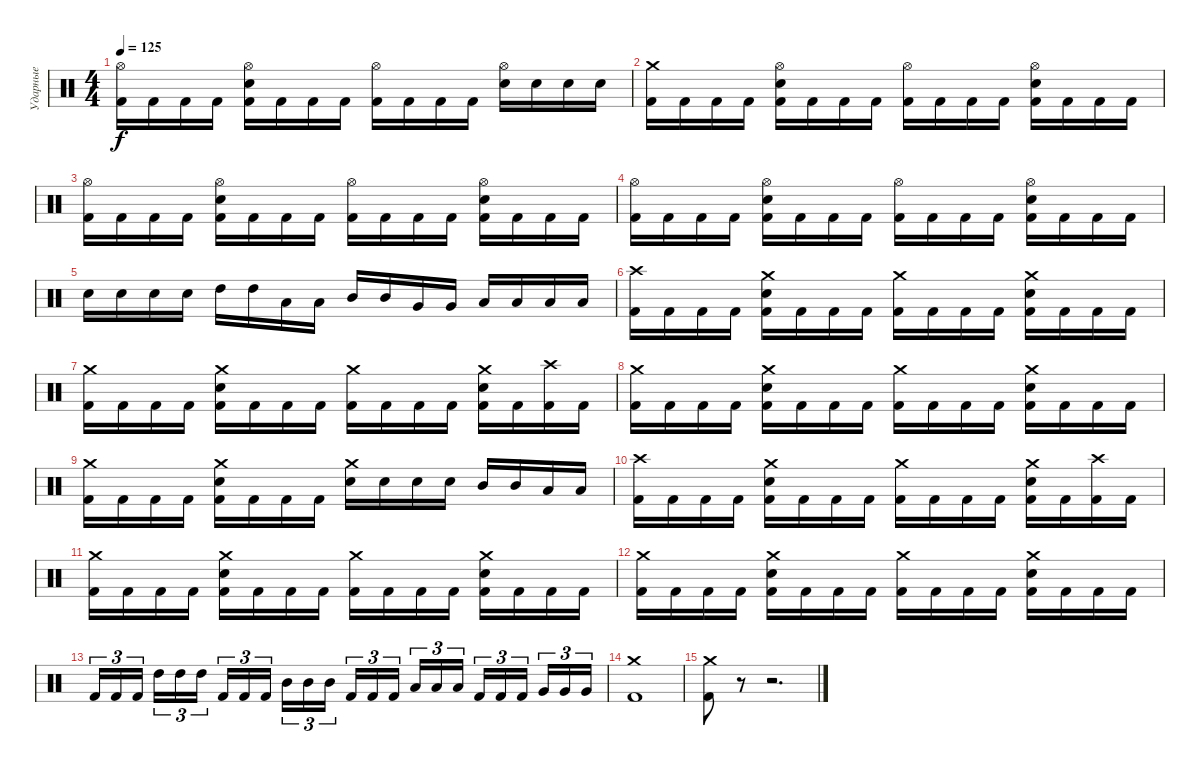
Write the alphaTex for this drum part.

\track ("Ударные" "Ударные") {instrument percussion}
\staff {score}
\articulation defaults
\ts (4 4)
\tempo 125
\clef neutral
\ks c
("Hi-Hat (open)" "Kick (hit) 2").16{dy f} "Kick (hit) 2".16 "Kick (hit) 2".16 "Kick (hit) 2".16 ("Hi-Hat (open)" "Electric Snare (hit)" "Kick (hit) 2").16 "Kick (hit) 2".16 "Kick (hit) 2".16 "Kick (hit) 2".16 ("Hi-Hat (open)" "Kick (hit) 2").16 "Kick (hit) 2".16 "Kick (hit) 2".16 "Kick (hit) 2".16 ("Hi-Hat (open)" "Electric Snare (hit)").16 "Electric Snare (hit)".16 "Electric Snare (hit)".16 "Electric Snare (hit)".16 |
("Crash medium (hit)" "Kick (hit) 2").16 "Kick (hit) 2".16 "Kick (hit) 2".16 "Kick (hit) 2".16 ("Hi-Hat (open)" "Electric Snare (hit)" "Kick (hit) 2").16 "Kick (hit) 2".16 "Kick (hit) 2".16 "Kick (hit) 2".16 ("Hi-Hat (open)" "Kick (hit) 2").16 "Kick (hit) 2".16 "Kick (hit) 2".16 "Kick (hit) 2".16 ("Hi-Hat (open)" "Electric Snare (hit)" "Kick (hit) 2").16 "Kick (hit) 2".16 "Kick (hit) 2".16 "Kick (hit) 2".16 |
("Hi-Hat (open)" "Kick (hit) 2").16 "Kick (hit) 2".16 "Kick (hit) 2".16 "Kick (hit) 2".16 ("Hi-Hat (open)" "Electric Snare (hit)" "Kick (hit) 2").16 "Kick (hit) 2".16 "Kick (hit) 2".16 "Kick (hit) 2".16 ("Hi-Hat (open)" "Kick (hit) 2").16 "Kick (hit) 2".16 "Kick (hit) 2".16 "Kick (hit) 2".16 ("Hi-Hat (open)" "Electric Snare (hit)" "Kick (hit) 2").16 "Kick (hit) 2".16 "Kick (hit) 2".16 "Kick (hit) 2".16 |
("Hi-Hat (open)" "Kick (hit) 2").16 "Kick (hit) 2".16 "Kick (hit) 2".16 "Kick (hit) 2".16 ("Hi-Hat (open)" "Electric Snare (hit)" "Kick (hit) 2").16 "Kick (hit) 2".16 "Kick (hit) 2".16 "Kick (hit) 2".16 ("Hi-Hat (open)" "Kick (hit) 2").16 "Kick (hit) 2".16 "Kick (hit) 2".16 "Kick (hit) 2".16 ("Hi-Hat (open)" "Electric Snare (hit)" "Kick (hit) 2").16 "Kick (hit) 2".16 "Kick (hit) 2".16 "Kick (hit) 2".16 |
"Electric Snare (hit)".16 "Electric Snare (hit)".16 "Electric Snare (hit)".16 "Electric Snare (hit)".16 "High Tom (hit)".16 "High Tom (hit)".16 "Low Tom (hit)".16 "Low Tom (hit)".16 "Mid Tom (hit)".16 "Mid Tom (hit)".16 "Very Low Tom (hit)".16 "Very Low Tom (hit)".16 "Low Tom (hit)".16 "Low Tom (hit)".16 "Low Floor Tom (hit)".16 "Low Floor Tom (hit)".16 |
("Crash high (hit)" "Kick (hit) 2").16 "Kick (hit) 2".16 "Kick (hit) 2".16 "Kick (hit) 2".16 ("Crash medium (hit)" "Electric Snare (hit)" "Kick (hit) 2").16 "Kick (hit) 2".16 "Kick (hit) 2".16 "Kick (hit) 2".16 ("Crash medium (hit)" "Kick (hit) 2").16 "Kick (hit) 2".16 "Kick (hit) 2".16 "Kick (hit) 2".16 ("Crash medium (hit)" "Electric Snare (hit)" "Kick (hit) 2").16 "Kick (hit) 2".16 "Kick (hit) 2".16 "Kick (hit) 2".16 |
("Crash medium (hit)" "Kick (hit) 2").16 "Kick (hit) 2".16 "Kick (hit) 2".16 "Kick (hit) 2".16 ("Crash medium (hit)" "Electric Snare (hit)" "Kick (hit) 2").16 "Kick (hit) 2".16 "Kick (hit) 2".16 "Kick (hit) 2".16 ("Crash medium (hit)" "Kick (hit) 2").16 "Kick (hit) 2".16 "Kick (hit) 2".16 "Kick (hit) 2".16 ("Crash medium (hit)" "Electric Snare (hit)" "Kick (hit) 2").16 "Kick (hit) 2".16 ("Crash high (hit)" "Kick (hit) 2").16 "Kick (hit) 2".16 |
("Crash medium (hit)" "Kick (hit) 2").16 "Kick (hit) 2".16 "Kick (hit) 2".16 "Kick (hit) 2".16 ("Crash medium (hit)" "Electric Snare (hit)" "Kick (hit) 2").16 "Kick (hit) 2".16 "Kick (hit) 2".16 "Kick (hit) 2".16 ("Crash medium (hit)" "Kick (hit) 2").16 "Kick (hit) 2".16 "Kick (hit) 2".16 "Kick (hit) 2".16 ("Crash medium (hit)" "Electric Snare (hit)" "Kick (hit) 2").16 "Kick (hit) 2".16 "Kick (hit) 2".16 "Kick (hit) 2".16 |
("Crash medium (hit)" "Kick (hit) 2").16 "Kick (hit) 2".16 "Kick (hit) 2".16 "Kick (hit) 2".16 ("Crash medium (hit)" "Electric Snare (hit)" "Kick (hit) 2").16 "Kick (hit) 2".16 "Kick (hit) 2".16 "Kick (hit) 2".16 ("Crash medium (hit)" "Electric Snare (hit)").16 "Electric Snare (hit)".16 "Electric Snare (hit)".16 "Electric Snare (hit)".16 "Mid Tom (hit)".16 "Mid Tom (hit)".16 "Low Tom (hit)".16 "Low Tom (hit)".16 |
("Crash high (hit)" "Kick (hit) 2").16 "Kick (hit) 2".16 "Kick (hit) 2".16 "Kick (hit) 2".16 ("Crash medium (hit)" "Electric Snare (hit)" "Kick (hit) 2").16 "Kick (hit) 2".16 "Kick (hit) 2".16 "Kick (hit) 2".16 ("Crash medium (hit)" "Kick (hit) 2").16 "Kick (hit) 2".16 "Kick (hit) 2".16 "Kick (hit) 2".16 ("Crash medium (hit)" "Electric Snare (hit)" "Kick (hit) 2").16 "Kick (hit) 2".16 ("Crash high (hit)" "Kick (hit) 2").16 "Kick (hit) 2".16 |
("Crash medium (hit)" "Kick (hit) 2").16 "Kick (hit) 2".16 "Kick (hit) 2".16 "Kick (hit) 2".16 ("Crash medium (hit)" "Electric Snare (hit)" "Kick (hit) 2").16 "Kick (hit) 2".16 "Kick (hit) 2".16 "Kick (hit) 2".16 ("Crash medium (hit)" "Kick (hit) 2").16 "Kick (hit) 2".16 "Kick (hit) 2".16 "Kick (hit) 2".16 ("Crash medium (hit)" "Electric Snare (hit)" "Kick (hit) 2").16 "Kick (hit) 2".16 "Kick (hit) 2".16 "Kick (hit) 2".16 |
("Crash medium (hit)" "Kick (hit) 2").16 "Kick (hit) 2".16 "Kick (hit) 2".16 "Kick (hit) 2".16 ("Crash medium (hit)" "Electric Snare (hit)" "Kick (hit) 2").16 "Kick (hit) 2".16 "Kick (hit) 2".16 "Kick (hit) 2".16 ("Crash medium (hit)" "Kick (hit) 2").16 "Kick (hit) 2".16 "Kick (hit) 2".16 "Kick (hit) 2".16 ("Crash medium (hit)" "Electric Snare (hit)" "Kick (hit) 2").16 "Kick (hit) 2".16 "Kick (hit) 2".16 "Kick (hit) 2".16 |
"Kick (hit) 2".16{tu (3 2)} "Kick (hit) 2".16{tu (3 2)} "Kick (hit) 2".16{tu (3 2) beam splitsecondary} "High Tom (hit)".16{tu (3 2)} "High Tom (hit)".16{tu (3 2)} "High Tom (hit)".16{tu (3 2)} "Kick (hit) 2".16{tu (3 2)} "Kick (hit) 2".16{tu (3 2)} "Kick (hit) 2".16{tu (3 2) beam splitsecondary} "Mid Tom (hit)".16{tu (3 2)} "Mid Tom (hit)".16{tu (3 2)} "Mid Tom (hit)".16{tu (3 2)} "Kick (hit) 2".16{tu (3 2)} "Kick (hit) 2".16{tu (3 2)} "Kick (hit) 2".16{tu (3 2) beam splitsecondary} "Low Tom (hit)".16{tu (3 2)} "Low Tom (hit)".16{tu (3 2)} "Low Tom (hit)".16{tu (3 2)} "Kick (hit) 2".16{tu (3 2)} "Kick (hit) 2".16{tu (3 2)} "Kick (hit) 2".16{tu (3 2) beam splitsecondary} "Very Low Tom (hit)".16{tu (3 2)} "Very Low Tom (hit)".16{tu (3 2)} "Very Low Tom (hit)".16{tu (3 2)} |
("Crash medium (hit)" "Kick (hit) 2").1 |
("Crash medium (hit)" "Kick (hit) 2").8 r.8 r.2{d}
